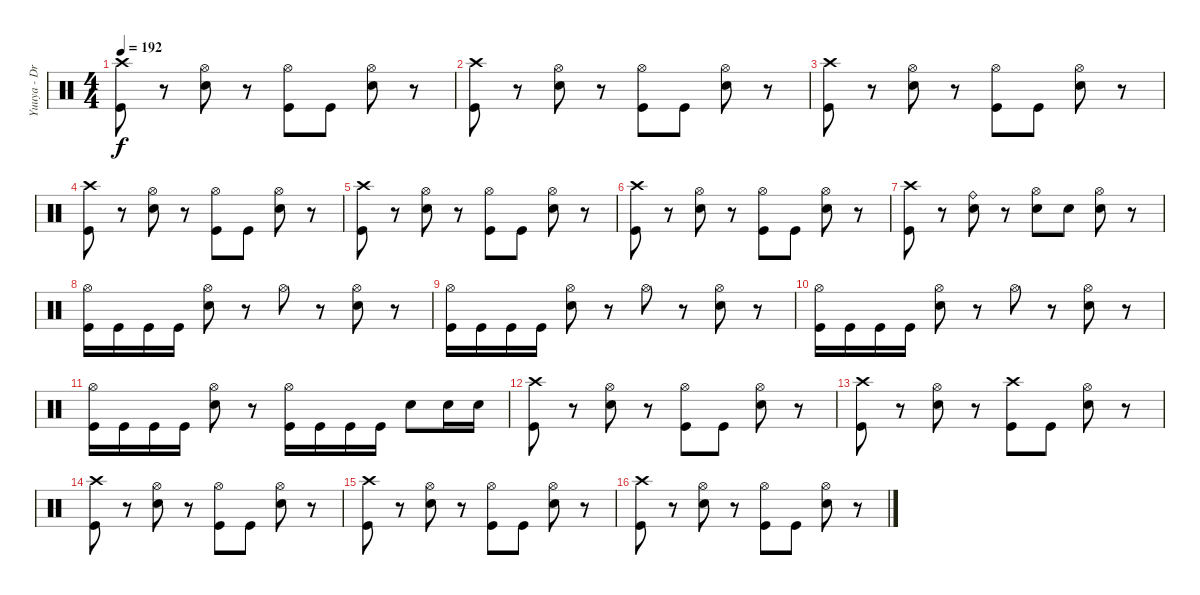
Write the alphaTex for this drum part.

\track ("Yuuya - Drums" "Yuuya - Dr") {instrument percussion}
\staff {score}
\articulation defaults
\ts (4 4)
\tempo 192
\clef neutral
\ks c
("Kick (hit)" "Crash high (hit)").8{dy f} r.8 ("Electric Snare (hit)" "Hi-Hat (open)").8 r.8 ("Kick (hit)" "Hi-Hat (open)").8 "Kick (hit)".8 ("Electric Snare (hit)" "Hi-Hat (open)").8 r.8 |
("Kick (hit)" "Crash high (hit)").8 r.8 ("Electric Snare (hit)" "Hi-Hat (open)").8 r.8 ("Kick (hit)" "Hi-Hat (open)").8 "Kick (hit)".8 ("Electric Snare (hit)" "Hi-Hat (open)").8 r.8 |
("Kick (hit)" "Crash high (hit)").8 r.8 ("Electric Snare (hit)" "Hi-Hat (open)").8 r.8 ("Kick (hit)" "Hi-Hat (open)").8 "Kick (hit)".8 ("Electric Snare (hit)" "Hi-Hat (open)").8 r.8 |
("Kick (hit)" "Crash high (hit)").8 r.8 ("Electric Snare (hit)" "Hi-Hat (open)").8 r.8 ("Kick (hit)" "Hi-Hat (open)").8 "Kick (hit)".8 ("Electric Snare (hit)" "Hi-Hat (open)").8 r.8 |
("Kick (hit)" "Crash high (hit)").8 r.8 ("Electric Snare (hit)" "Hi-Hat (open)").8 r.8 ("Kick (hit)" "Hi-Hat (open)").8 "Kick (hit)".8 ("Electric Snare (hit)" "Hi-Hat (open)").8 r.8 |
("Kick (hit)" "Crash high (hit)").8 r.8 ("Electric Snare (hit)" "Hi-Hat (open)").8 r.8 ("Kick (hit)" "Hi-Hat (open)").8 "Kick (hit)".8 ("Electric Snare (hit)" "Hi-Hat (open)").8 r.8 |
("Kick (hit)" "Crash high (hit)").8 r.8 ("Electric Snare (hit)" "Ride (bell)").8 r.8 ("Electric Snare (hit)" "Hi-Hat (open)").8 "Electric Snare (hit)".8 ("Electric Snare (hit)" "Hi-Hat (open)").8 r.8 |
("Kick (hit)" "Hi-Hat (open)").16 "Kick (hit)".16 "Kick (hit)".16 "Kick (hit)".16 ("Electric Snare (hit)" "Hi-Hat (open)").8 r.8 "Hi-Hat (open)".8 r.8 ("Electric Snare (hit)" "Hi-Hat (open)").8 r.8 |
("Kick (hit)" "Hi-Hat (open)").16 "Kick (hit)".16 "Kick (hit)".16 "Kick (hit)".16 ("Electric Snare (hit)" "Hi-Hat (open)").8 r.8 "Hi-Hat (open)".8 r.8 ("Electric Snare (hit)" "Hi-Hat (open)").8 r.8 |
("Kick (hit)" "Hi-Hat (open)").16 "Kick (hit)".16 "Kick (hit)".16 "Kick (hit)".16 ("Electric Snare (hit)" "Hi-Hat (open)").8 r.8 "Hi-Hat (open)".8 r.8 ("Electric Snare (hit)" "Hi-Hat (open)").8 r.8 |
("Kick (hit)" "Hi-Hat (open)").16 "Kick (hit)".16 "Kick (hit)".16 "Kick (hit)".16 ("Electric Snare (hit)" "Hi-Hat (open)").8 r.8 ("Kick (hit)" "Hi-Hat (open)").16 "Kick (hit)".16 "Kick (hit)".16 "Kick (hit)".16 "Electric Snare (hit)".8 "Electric Snare (hit)".16 "Electric Snare (hit)".16 |
("Kick (hit)" "Crash high (hit)").8 r.8 ("Electric Snare (hit)" "Hi-Hat (open)").8 r.8 ("Kick (hit)" "Hi-Hat (open)").8 "Kick (hit)".8 ("Electric Snare (hit)" "Hi-Hat (open)").8 r.8 |
("Kick (hit)" "Crash high (hit)").8 r.8 ("Electric Snare (hit)" "Hi-Hat (open)").8 r.8 ("Kick (hit)" "Crash high (hit)").8 "Kick (hit)".8 ("Electric Snare (hit)" "Hi-Hat (open)").8 r.8 |
("Kick (hit)" "Crash high (hit)").8 r.8 ("Electric Snare (hit)" "Hi-Hat (open)").8 r.8 ("Kick (hit)" "Hi-Hat (open)").8 "Kick (hit)".8 ("Electric Snare (hit)" "Hi-Hat (open)").8 r.8 |
("Kick (hit)" "Crash high (hit)").8 r.8 ("Electric Snare (hit)" "Hi-Hat (open)").8 r.8 ("Kick (hit)" "Hi-Hat (open)").8 "Kick (hit)".8 ("Electric Snare (hit)" "Hi-Hat (open)").8 r.8 |
("Kick (hit)" "Crash high (hit)").8 r.8 ("Electric Snare (hit)" "Hi-Hat (open)").8 r.8 ("Kick (hit)" "Hi-Hat (open)").8 "Kick (hit)".8 ("Electric Snare (hit)" "Hi-Hat (open)").8 r.8
